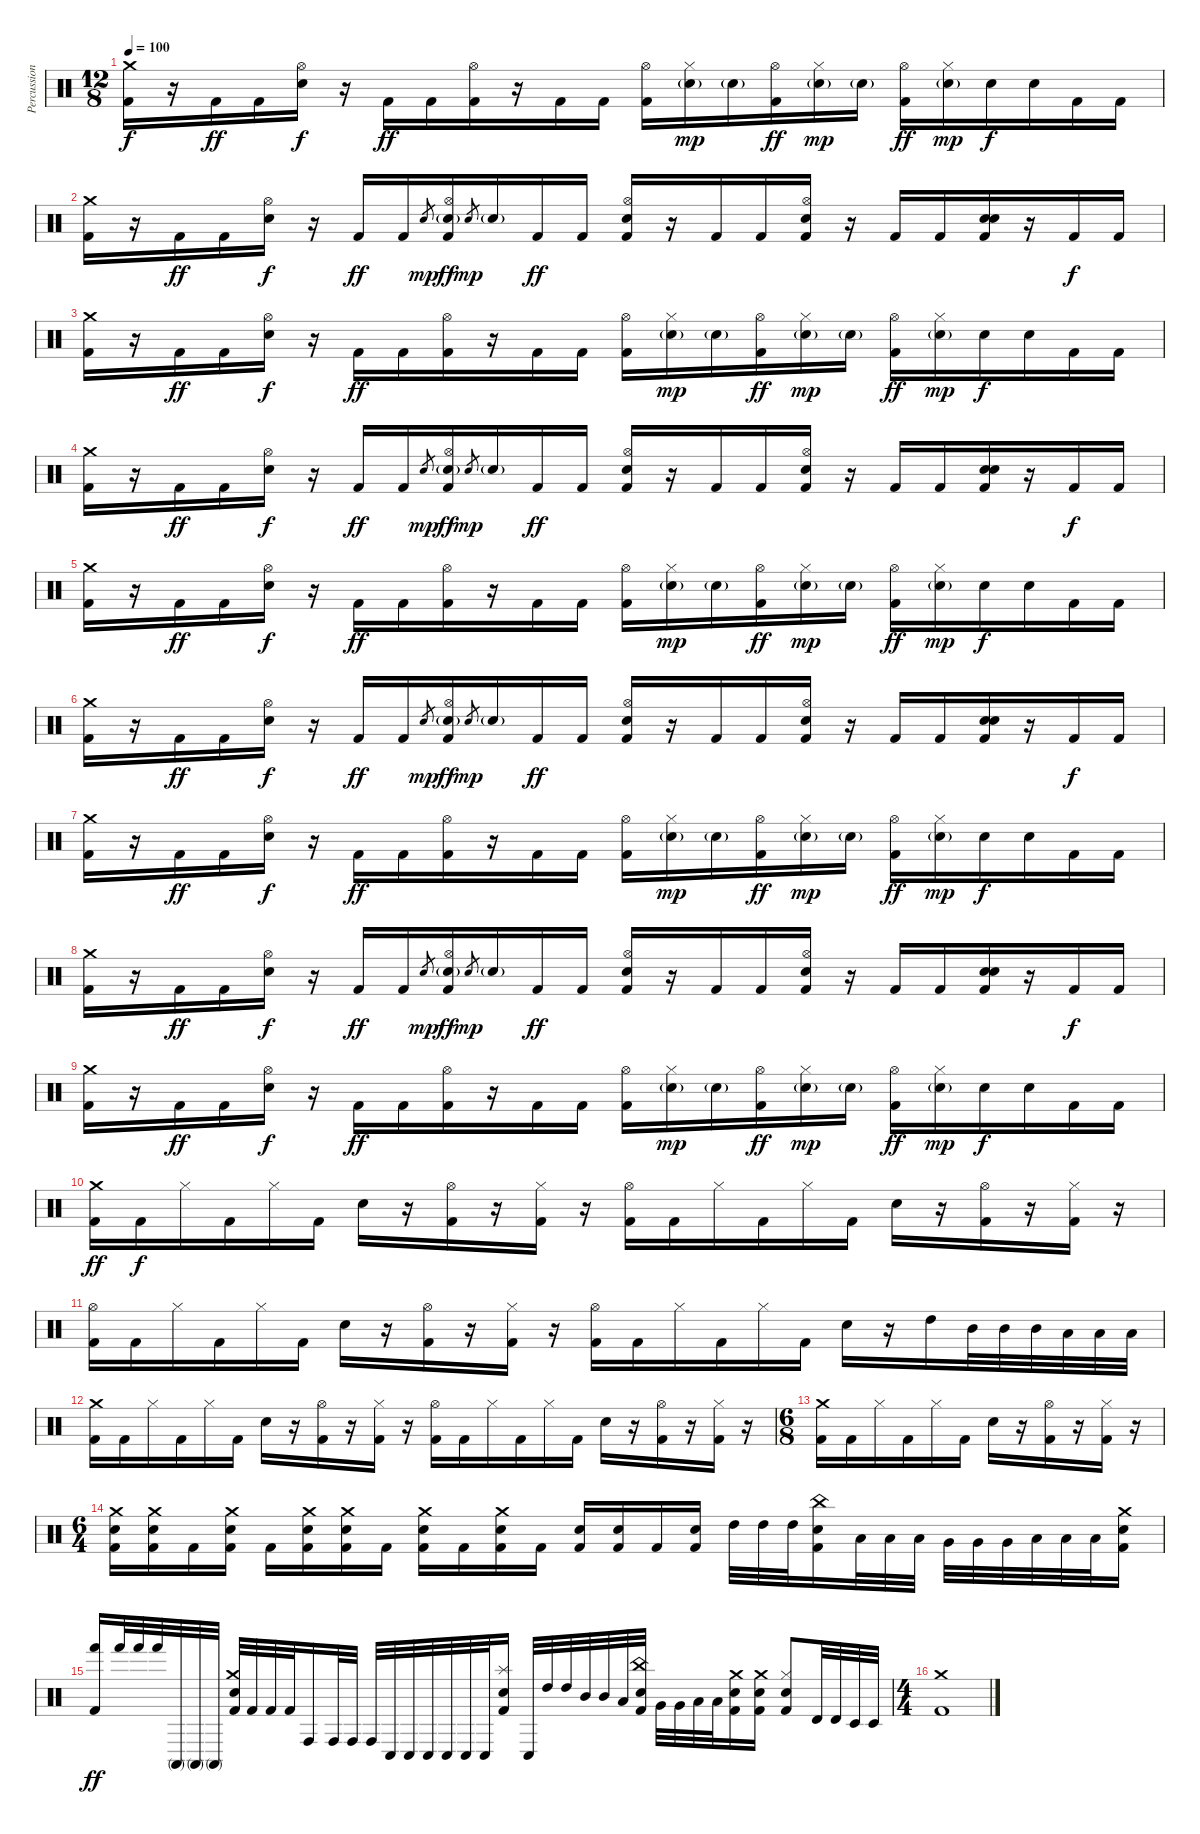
\track ("Percussions" "Percussion") {instrument percussion}
\staff {score}
\articulation defaults
\ts (12 8)
\tempo 100
\clef neutral
\ks c
("Crash medium (hit)" "Kick (hit) 2").16{dy f} r.16 "Kick (hit) 2".16{dy ff} "Kick (hit) 2".16 ("Hi-Hat (open)" "Electric Snare (hit)").16{dy f} r.16 "Kick (hit) 2".16{dy ff} "Kick (hit) 2".16 ("Hi-Hat (open)" "Kick (hit) 2").16 r.16 "Kick (hit) 2".16 "Kick (hit) 2".16 ("Hi-Hat (open)" "Kick (hit) 2").16 ("Hi-Hat (closed)" "Electric Snare (hit)"{g}).16{dy mp} "Electric Snare (hit)"{g}.16 ("Hi-Hat (open)" "Kick (hit) 2").16{dy ff} ("Hi-Hat (closed)" "Electric Snare (hit)"{g}).16{dy mp} "Electric Snare (hit)"{g}.16 ("Hi-Hat (open)" "Kick (hit) 2").16{dy ff} ("Hi-Hat (closed)" "Electric Snare (hit)"{g}).16{dy mp} "Electric Snare (hit)".16{dy f} "Electric Snare (hit)".16 "Kick (hit) 2".16 "Kick (hit) 2".16 |
("Crash medium (hit)" "Kick (hit) 2").16 r.16 "Kick (hit) 2".16{dy ff} "Kick (hit) 2".16 ("Hi-Hat (open)" "Electric Snare (hit)").16{dy f} r.16 "Kick (hit) 2".16{dy ff} "Kick (hit) 2".16 "Electric Snare (hit)".8{gr dy mp} ("Hi-Hat (open)" "Electric Snare (hit)"{g} "Kick (hit) 2").16{dy ff} "Electric Snare (hit)".8{gr dy mp} "Electric Snare (hit)"{g}.16 "Kick (hit) 2".16{dy ff} "Kick (hit) 2".16 ("Hi-Hat (open)" "Electric Snare (hit)" "Kick (hit) 2").16 r.16 "Kick (hit) 2".16 "Kick (hit) 2".16 ("Hi-Hat (open)" "Electric Snare (hit)" "Kick (hit) 2").16 r.16 "Kick (hit) 2".16 "Kick (hit) 2".16 ("Electric Snare (hit)" "Electric Snare (hit)" "Kick (hit) 2").16 r.16 "Kick (hit) 2".16{dy f} "Kick (hit) 2".16 |
("Crash medium (hit)" "Kick (hit) 2").16 r.16 "Kick (hit) 2".16{dy ff} "Kick (hit) 2".16 ("Hi-Hat (open)" "Electric Snare (hit)").16{dy f} r.16 "Kick (hit) 2".16{dy ff} "Kick (hit) 2".16 ("Hi-Hat (open)" "Kick (hit) 2").16 r.16 "Kick (hit) 2".16 "Kick (hit) 2".16 ("Hi-Hat (open)" "Kick (hit) 2").16 ("Hi-Hat (closed)" "Electric Snare (hit)"{g}).16{dy mp} "Electric Snare (hit)"{g}.16 ("Hi-Hat (open)" "Kick (hit) 2").16{dy ff} ("Hi-Hat (closed)" "Electric Snare (hit)"{g}).16{dy mp} "Electric Snare (hit)"{g}.16 ("Hi-Hat (open)" "Kick (hit) 2").16{dy ff} ("Hi-Hat (closed)" "Electric Snare (hit)"{g}).16{dy mp} "Electric Snare (hit)".16{dy f} "Electric Snare (hit)".16 "Kick (hit) 2".16 "Kick (hit) 2".16 |
("Crash medium (hit)" "Kick (hit) 2").16 r.16 "Kick (hit) 2".16{dy ff} "Kick (hit) 2".16 ("Hi-Hat (open)" "Electric Snare (hit)").16{dy f} r.16 "Kick (hit) 2".16{dy ff} "Kick (hit) 2".16 "Electric Snare (hit)".8{gr dy mp} ("Hi-Hat (open)" "Electric Snare (hit)"{g} "Kick (hit) 2").16{dy ff} "Electric Snare (hit)".8{gr dy mp} "Electric Snare (hit)"{g}.16 "Kick (hit) 2".16{dy ff} "Kick (hit) 2".16 ("Hi-Hat (open)" "Electric Snare (hit)" "Kick (hit) 2").16 r.16 "Kick (hit) 2".16 "Kick (hit) 2".16 ("Hi-Hat (open)" "Electric Snare (hit)" "Kick (hit) 2").16 r.16 "Kick (hit) 2".16 "Kick (hit) 2".16 ("Electric Snare (hit)" "Electric Snare (hit)" "Kick (hit) 2").16 r.16 "Kick (hit) 2".16{dy f} "Kick (hit) 2".16 |
("Crash medium (hit)" "Kick (hit) 2").16 r.16 "Kick (hit) 2".16{dy ff} "Kick (hit) 2".16 ("Hi-Hat (open)" "Electric Snare (hit)").16{dy f} r.16 "Kick (hit) 2".16{dy ff} "Kick (hit) 2".16 ("Hi-Hat (open)" "Kick (hit) 2").16 r.16 "Kick (hit) 2".16 "Kick (hit) 2".16 ("Hi-Hat (open)" "Kick (hit) 2").16 ("Hi-Hat (closed)" "Electric Snare (hit)"{g}).16{dy mp} "Electric Snare (hit)"{g}.16 ("Hi-Hat (open)" "Kick (hit) 2").16{dy ff} ("Hi-Hat (closed)" "Electric Snare (hit)"{g}).16{dy mp} "Electric Snare (hit)"{g}.16 ("Hi-Hat (open)" "Kick (hit) 2").16{dy ff} ("Hi-Hat (closed)" "Electric Snare (hit)"{g}).16{dy mp} "Electric Snare (hit)".16{dy f} "Electric Snare (hit)".16 "Kick (hit) 2".16 "Kick (hit) 2".16 |
("Crash medium (hit)" "Kick (hit) 2").16 r.16 "Kick (hit) 2".16{dy ff} "Kick (hit) 2".16 ("Hi-Hat (open)" "Electric Snare (hit)").16{dy f} r.16 "Kick (hit) 2".16{dy ff} "Kick (hit) 2".16 "Electric Snare (hit)".8{gr dy mp} ("Hi-Hat (open)" "Electric Snare (hit)"{g} "Kick (hit) 2").16{dy ff} "Electric Snare (hit)".8{gr dy mp} "Electric Snare (hit)"{g}.16 "Kick (hit) 2".16{dy ff} "Kick (hit) 2".16 ("Hi-Hat (open)" "Electric Snare (hit)" "Kick (hit) 2").16 r.16 "Kick (hit) 2".16 "Kick (hit) 2".16 ("Hi-Hat (open)" "Electric Snare (hit)" "Kick (hit) 2").16 r.16 "Kick (hit) 2".16 "Kick (hit) 2".16 ("Electric Snare (hit)" "Electric Snare (hit)" "Kick (hit) 2").16 r.16 "Kick (hit) 2".16{dy f} "Kick (hit) 2".16 |
("Crash medium (hit)" "Kick (hit) 2").16 r.16 "Kick (hit) 2".16{dy ff} "Kick (hit) 2".16 ("Hi-Hat (open)" "Electric Snare (hit)").16{dy f} r.16 "Kick (hit) 2".16{dy ff} "Kick (hit) 2".16 ("Hi-Hat (open)" "Kick (hit) 2").16 r.16 "Kick (hit) 2".16 "Kick (hit) 2".16 ("Hi-Hat (open)" "Kick (hit) 2").16 ("Hi-Hat (closed)" "Electric Snare (hit)"{g}).16{dy mp} "Electric Snare (hit)"{g}.16 ("Hi-Hat (open)" "Kick (hit) 2").16{dy ff} ("Hi-Hat (closed)" "Electric Snare (hit)"{g}).16{dy mp} "Electric Snare (hit)"{g}.16 ("Hi-Hat (open)" "Kick (hit) 2").16{dy ff} ("Hi-Hat (closed)" "Electric Snare (hit)"{g}).16{dy mp} "Electric Snare (hit)".16{dy f} "Electric Snare (hit)".16 "Kick (hit) 2".16 "Kick (hit) 2".16 |
("Crash medium (hit)" "Kick (hit) 2").16 r.16 "Kick (hit) 2".16{dy ff} "Kick (hit) 2".16 ("Hi-Hat (open)" "Electric Snare (hit)").16{dy f} r.16 "Kick (hit) 2".16{dy ff} "Kick (hit) 2".16 "Electric Snare (hit)".8{gr dy mp} ("Hi-Hat (open)" "Electric Snare (hit)"{g} "Kick (hit) 2").16{dy ff} "Electric Snare (hit)".8{gr dy mp} "Electric Snare (hit)"{g}.16 "Kick (hit) 2".16{dy ff} "Kick (hit) 2".16 ("Hi-Hat (open)" "Electric Snare (hit)" "Kick (hit) 2").16 r.16 "Kick (hit) 2".16 "Kick (hit) 2".16 ("Hi-Hat (open)" "Electric Snare (hit)" "Kick (hit) 2").16 r.16 "Kick (hit) 2".16 "Kick (hit) 2".16 ("Electric Snare (hit)" "Electric Snare (hit)" "Kick (hit) 2").16 r.16 "Kick (hit) 2".16{dy f} "Kick (hit) 2".16 |
("Crash medium (hit)" "Kick (hit) 2").16 r.16 "Kick (hit) 2".16{dy ff} "Kick (hit) 2".16 ("Hi-Hat (open)" "Electric Snare (hit)").16{dy f} r.16 "Kick (hit) 2".16{dy ff} "Kick (hit) 2".16 ("Hi-Hat (open)" "Kick (hit) 2").16 r.16 "Kick (hit) 2".16 "Kick (hit) 2".16 ("Hi-Hat (open)" "Kick (hit) 2").16 ("Hi-Hat (closed)" "Electric Snare (hit)"{g}).16{dy mp} "Electric Snare (hit)"{g}.16 ("Hi-Hat (open)" "Kick (hit) 2").16{dy ff} ("Hi-Hat (closed)" "Electric Snare (hit)"{g}).16{dy mp} "Electric Snare (hit)"{g}.16 ("Hi-Hat (open)" "Kick (hit) 2").16{dy ff} ("Hi-Hat (closed)" "Electric Snare (hit)"{g}).16{dy mp} "Electric Snare (hit)".16{dy f} "Electric Snare (hit)".16 "Kick (hit) 2".16 "Kick (hit) 2".16 |
("Crash medium (hit)" "Kick (hit) 2").16{dy ff} "Kick (hit) 2".16{dy f} "Hi-Hat (closed)".16 "Kick (hit) 2".16 "Hi-Hat (closed)".16 "Kick (hit) 2".16 "Electric Snare (hit)".16 r.16 ("Hi-Hat (open)" "Kick (hit) 2").16 r.16 ("Hi-Hat (closed)" "Kick (hit) 2").16 r.16 ("Hi-Hat (open)" "Kick (hit) 2").16 "Kick (hit) 2".16 "Hi-Hat (closed)".16 "Kick (hit) 2".16 "Hi-Hat (closed)".16 "Kick (hit) 2".16 "Electric Snare (hit)".16 r.16 ("Hi-Hat (open)" "Kick (hit) 2").16 r.16 ("Hi-Hat (closed)" "Kick (hit) 2").16 r.16 |
("Hi-Hat (open)" "Kick (hit) 2").16 "Kick (hit) 2".16 "Hi-Hat (closed)".16 "Kick (hit) 2".16 "Hi-Hat (closed)".16 "Kick (hit) 2".16 "Electric Snare (hit)".16 r.16 ("Hi-Hat (open)" "Kick (hit) 2").16 r.16 ("Hi-Hat (closed)" "Kick (hit) 2").16 r.16 ("Hi-Hat (open)" "Kick (hit) 2").16 "Kick (hit) 2".16 "Hi-Hat (closed)".16 "Kick (hit) 2".16 "Hi-Hat (closed)".16 "Kick (hit) 2".16 "Electric Snare (hit)".16 r.16 "High Tom (hit)".16 "Mid Tom (hit)".32 "Mid Tom (hit)".32 "Mid Tom (hit)".32 "Low Tom (hit)".32 "Low Tom (hit)".32 "Low Tom (hit)".32 |
("Crash medium (hit)" "Kick (hit) 2").16 "Kick (hit) 2".16 "Hi-Hat (closed)".16 "Kick (hit) 2".16 "Hi-Hat (closed)".16 "Kick (hit) 2".16 "Electric Snare (hit)".16 r.16 ("Hi-Hat (open)" "Kick (hit) 2").16 r.16 ("Hi-Hat (closed)" "Kick (hit) 2").16 r.16 ("Hi-Hat (open)" "Kick (hit) 2").16 "Kick (hit) 2".16 "Hi-Hat (closed)".16 "Kick (hit) 2".16 "Hi-Hat (closed)".16 "Kick (hit) 2".16 "Electric Snare (hit)".16 r.16 ("Hi-Hat (open)" "Kick (hit) 2").16 r.16 ("Hi-Hat (closed)" "Kick (hit) 2").16 r.16 |
\ts (6 8)
("Crash medium (hit)" "Kick (hit) 2").16 "Kick (hit) 2".16 "Hi-Hat (closed)".16 "Kick (hit) 2".16 "Hi-Hat (closed)".16 "Kick (hit) 2".16 "Electric Snare (hit)".16 r.16 ("Hi-Hat (open)" "Kick (hit) 2").16 r.16 ("Hi-Hat (closed)" "Kick (hit) 2").16 r.16 |
\ts (6 4)
("Crash medium (hit)" "Electric Snare (hit)" "Kick (hit) 2").16 ("Crash medium (hit)" "Electric Snare (hit)" "Kick (hit) 2").16 "Kick (hit) 2".16 ("Crash medium (hit)" "Electric Snare (hit)" "Kick (hit) 2").16 "Kick (hit) 2".16 ("Crash medium (hit)" "Electric Snare (hit)" "Kick (hit) 2").16 ("Crash medium (hit)" "Electric Snare (hit)" "Kick (hit) 2").16 "Kick (hit) 2".16 ("Crash medium (hit)" "Electric Snare (hit)" "Kick (hit) 2").16 "Kick (hit) 2".16 ("Crash medium (hit)" "Electric Snare (hit)" "Kick (hit) 2").16 "Kick (hit) 2".16 ("Electric Snare (hit)" "Kick (hit) 2").16 ("Electric Snare (hit)" "Kick (hit) 2").16 "Kick (hit) 2".16 ("Electric Snare (hit)" "Kick (hit) 2").16 "High Tom (hit)".32 "High Tom (hit)".32 "High Tom (hit)".32 ("China (hit)" "Electric Snare (hit)" "Kick (hit) 2").16 "Low Tom (hit)".32 "Low Tom (hit)".32 "Low Tom (hit)".32 "Very Low Tom (hit)".32 "Very Low Tom (hit)".32 "Very Low Tom (hit)".32 "Low Floor Tom (hit)".32 "Low Floor Tom (hit)".32 "Low Floor Tom (hit)".32 ("Crash medium (hit)" "Electric Snare (hit)" "Kick (hit) 2").16 |
("Kick (hit) 2" "Hand (hit)").16{dy ff} "Hand (hit)".32 "Hand (hit)".32 "Hand (hit)".32 "Conga high (mute)".32 "Conga high (mute)".32 "Conga high (mute)".32 ("Crash medium (hit)" "Electric Snare (hit)" "Kick (hit) 2").32 "Kick (hit) 2".32 "Kick (hit) 2".32 "Kick (hit) 2".32 "Conga high (hit)".16 "Conga high (hit)".32 "Conga high (hit)".32 "Conga high (hit)".32 "Conga low (hit)".32 "Conga low (hit)".32 "Conga low (hit)".32 "Conga low (hit)".32 "Conga low (hit)".32 "Conga low (hit)".32 ("Splash (hit)" "Electric Snare (hit)" "Kick (hit) 2").16 "Conga low (hit)".32 "High Tom (hit)".32 "High Tom (hit)".32 "Mid Tom (hit)".32 "Mid Tom (hit)".32 "Low Tom (hit)".32 ("China (hit)" "Electric Snare (hit)" "Kick (hit) 2").32 "Very Low Tom (hit)".32 "Very Low Tom (hit)".32 "Low Floor Tom (hit)".32 "Low Floor Tom (hit)".32 ("Crash medium (hit)" "Electric Snare (hit)" "Kick (hit) 2").16 ("Crash medium (hit)" "Electric Snare (hit)" "Kick (hit) 2").16 ("Hi-Hat (closed)" "Electric Snare (hit)" "Kick (hit) 2").8 "Timbale high (hit)".32 "Timbale high (hit)".32 "Timbale low (hit)".32 "Timbale low (hit)".32 |
\ts (4 4)
("Crash medium (hit)" "Kick (hit) 2").1
